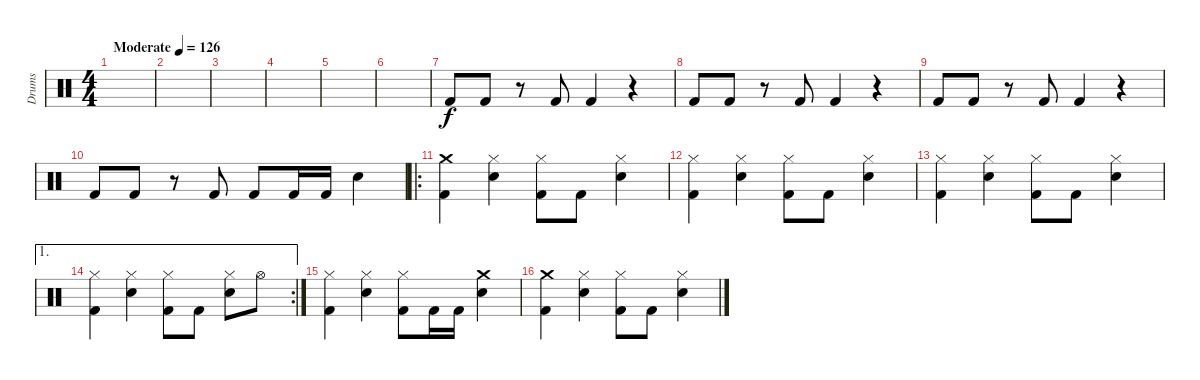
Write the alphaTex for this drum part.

\track ("Drums" "Drums") {instrument percussion}
\staff {score}
\articulation defaults
\ts (4 4)
\tempo (126 "Moderate")
\clef neutral
\ks c
|
|
|
|
|
|
"Kick (hit) 2".8 "Kick (hit) 2".8 r.8 "Kick (hit) 2".8 "Kick (hit) 2".4 r.4 |
"Kick (hit) 2".8 "Kick (hit) 2".8 r.8 "Kick (hit) 2".8 "Kick (hit) 2".4 r.4 |
"Kick (hit) 2".8 "Kick (hit) 2".8 r.8 "Kick (hit) 2".8 "Kick (hit) 2".4 r.4 |
"Kick (hit) 2".8 "Kick (hit) 2".8 r.8 "Kick (hit) 2".8 "Kick (hit) 2".8 "Kick (hit) 2".16 "Kick (hit) 2".16 "Electric Snare (hit)".4 |
\ro
("Crash medium (hit)" "Kick (hit) 2").4 ("Hi-Hat (closed)" "Electric Snare (hit)").4 ("Hi-Hat (closed)" "Kick (hit) 2").8 "Kick (hit) 2".8 ("Hi-Hat (closed)" "Electric Snare (hit)").4 |
("Hi-Hat (closed)" "Kick (hit) 2").4 ("Hi-Hat (closed)" "Electric Snare (hit)").4 ("Hi-Hat (closed)" "Kick (hit) 2").8 "Kick (hit) 2".8 ("Hi-Hat (closed)" "Electric Snare (hit)").4 |
("Hi-Hat (closed)" "Kick (hit) 2").4 ("Hi-Hat (closed)" "Electric Snare (hit)").4 ("Hi-Hat (closed)" "Kick (hit) 2").8 "Kick (hit) 2".8 ("Hi-Hat (closed)" "Electric Snare (hit)").4 |
\ae 1
\rc 2
("Hi-Hat (closed)" "Kick (hit) 2").4 ("Hi-Hat (closed)" "Electric Snare (hit)").4 ("Hi-Hat (closed)" "Kick (hit) 2").8 "Kick (hit) 2".8 ("Hi-Hat (closed)" "Electric Snare (hit)").8 "Hi-Hat (open)".8 |
("Hi-Hat (closed)" "Kick (hit) 2").4 ("Hi-Hat (closed)" "Electric Snare (hit)").4 ("Hi-Hat (closed)" "Kick (hit) 2").8 "Kick (hit) 2".16 "Kick (hit) 2".16 ("Crash medium (hit)" "Electric Snare (hit)").4 |
("Crash medium (hit)" "Kick (hit) 2").4 ("Hi-Hat (closed)" "Electric Snare (hit)").4 ("Hi-Hat (closed)" "Kick (hit) 2").8 "Kick (hit) 2".8 ("Hi-Hat (closed)" "Electric Snare (hit)").4
